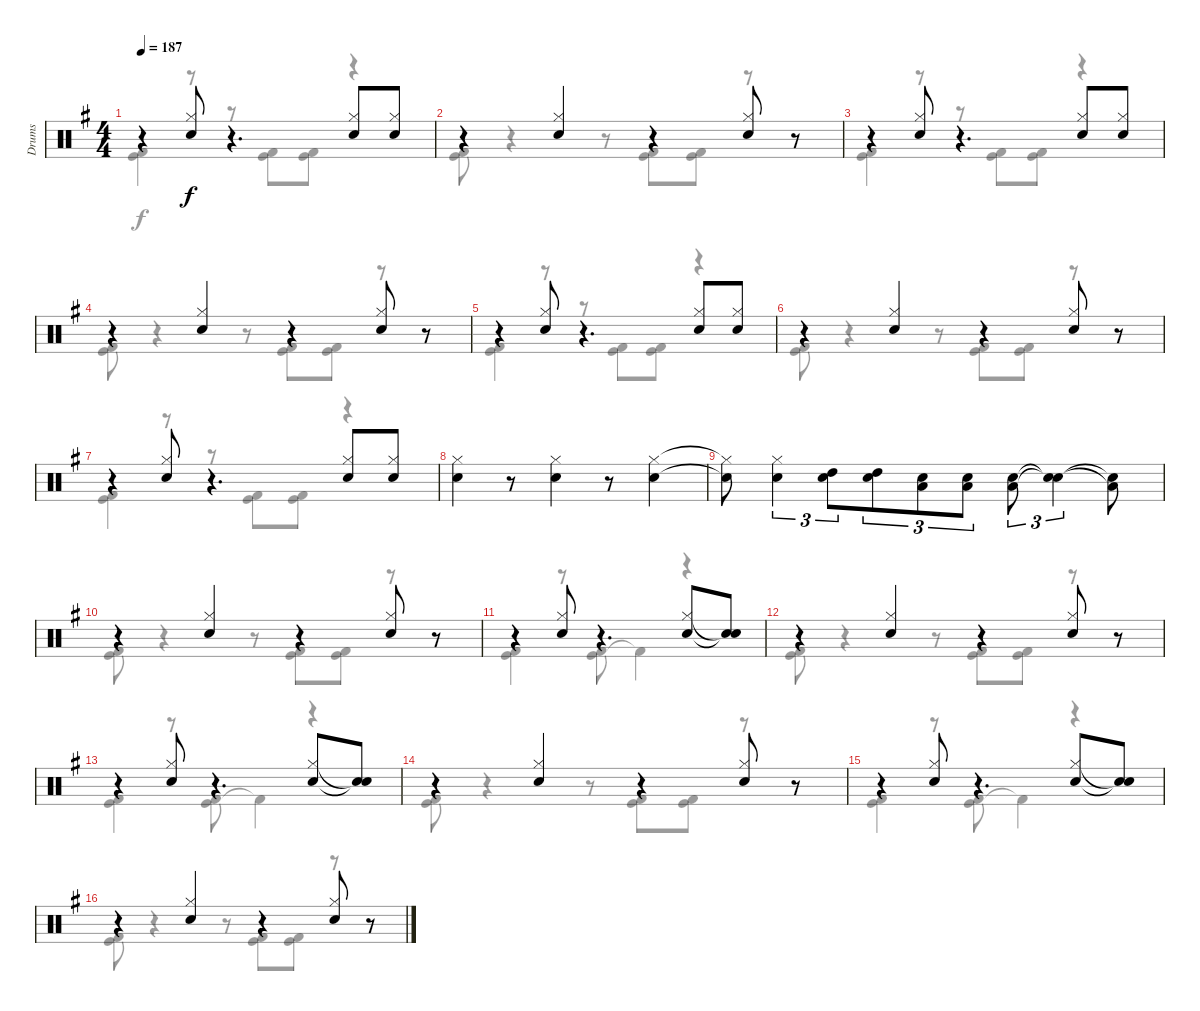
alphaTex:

\track ("Drums" "Drums") {instrument percussion}
\staff {score}
\articulation defaults
\voice
\ts (4 4)
\tempo 187
\clef neutral
\ks g
r.4{dy f} ("Hi-Hat (closed)" "Electric Snare (hit)").8 r.4{d} ("Hi-Hat (closed)" "Electric Snare (hit)").8 ("Hi-Hat (closed)" "Electric Snare (hit)").8 |
r.4 ("Hi-Hat (closed)" "Electric Snare (hit)").4 r.4 ("Hi-Hat (closed)" "Electric Snare (hit)").8 r.8 |
r.4 ("Hi-Hat (closed)" "Electric Snare (hit)").8 r.4{d} ("Hi-Hat (closed)" "Electric Snare (hit)").8 ("Hi-Hat (closed)" "Electric Snare (hit)").8 |
r.4 ("Hi-Hat (closed)" "Electric Snare (hit)").4 r.4 ("Hi-Hat (closed)" "Electric Snare (hit)").8 r.8 |
r.4 ("Hi-Hat (closed)" "Electric Snare (hit)").8 r.4{d} ("Hi-Hat (closed)" "Electric Snare (hit)").8 ("Hi-Hat (closed)" "Electric Snare (hit)").8 |
r.4 ("Hi-Hat (closed)" "Electric Snare (hit)").4 r.4 ("Hi-Hat (closed)" "Electric Snare (hit)").8 r.8 |
r.4 ("Hi-Hat (closed)" "Electric Snare (hit)").8 r.4{d} ("Hi-Hat (closed)" "Electric Snare (hit)").8 ("Hi-Hat (closed)" "Electric Snare (hit)").8 |
("Hi-Hat (closed)" "Electric Snare (hit)").4 r.8 ("Hi-Hat (closed)" "Electric Snare (hit)").4 r.8 ("Hi-Hat (closed)" "Electric Snare (hit)").4 |
("Hi-Hat (closed)"{t} "Electric Snare (hit)"{t}).8 ("Hi-Hat (closed)" "Electric Snare (hit)").4{tu (3 2)} ("High Tom (hit)" "Electric Snare (hit)").8{tu (3 2) beam merge} ("High Tom (hit)" "Electric Snare (hit)").8{tu (3 2)} ("Low Tom (hit)" "Electric Snare (hit)").8{tu (3 2) beam merge} ("Low Tom (hit)" "Electric Snare (hit)").8{tu (3 2)} ("Low Tom (hit)" "Electric Snare (hit)").8{tu (3 2)} ("Snare (hit)"{t} "Snare (hit)"{t}).4{tu (3 2)} ("Low Tom (hit)"{t} "Electric Snare (hit)"{t}).8 |
r.4 ("Hi-Hat (closed)" "Electric Snare (hit)").4 r.4 ("Hi-Hat (closed)" "Electric Snare (hit)").8 r.8 |
r.4 ("Hi-Hat (closed)" "Electric Snare (hit)").8 r.4{d} ("Hi-Hat (closed)" "Electric Snare (hit)").8 ("Snare (hit)"{t} "Snare (hit)"{t}).8 |
r.4 ("Hi-Hat (closed)" "Electric Snare (hit)").4 r.4 ("Hi-Hat (closed)" "Electric Snare (hit)").8 r.8 |
r.4 ("Hi-Hat (closed)" "Electric Snare (hit)").8 r.4{d} ("Hi-Hat (closed)" "Electric Snare (hit)").8 ("Snare (hit)"{t} "Snare (hit)"{t}).8 |
r.4 ("Hi-Hat (closed)" "Electric Snare (hit)").4 r.4 ("Hi-Hat (closed)" "Electric Snare (hit)").8 r.8 |
r.4 ("Hi-Hat (closed)" "Electric Snare (hit)").8 r.4{d} ("Hi-Hat (closed)" "Electric Snare (hit)").8 ("Snare (hit)"{t} "Snare (hit)"{t}).8 |
r.4 ("Hi-Hat (closed)" "Electric Snare (hit)").4 r.4 ("Hi-Hat (closed)" "Electric Snare (hit)").8 r.8
\voice
\clef neutral
\ottava regular
\simile none
\ks g
("Kick (hit)" "Kick (hit) 2").4{dy f} r.8 r.8 ("Kick (hit)" "Kick (hit) 2").8 ("Kick (hit)" "Kick (hit) 2").8 r.4 |
("Kick (hit)" "Kick (hit) 2").8 r.4 r.8 ("Kick (hit)" "Kick (hit) 2").8 ("Kick (hit)" "Kick (hit) 2").8 r.8 r.8 |
("Kick (hit)" "Kick (hit) 2").4 r.8 r.8 ("Kick (hit)" "Kick (hit) 2").8 ("Kick (hit)" "Kick (hit) 2").8 r.4 |
("Kick (hit)" "Kick (hit) 2").8 r.4 r.8 ("Kick (hit)" "Kick (hit) 2").8 ("Kick (hit)" "Kick (hit) 2").8 r.8 r.8 |
("Kick (hit)" "Kick (hit) 2").4 r.8 r.8 ("Kick (hit)" "Kick (hit) 2").8 ("Kick (hit)" "Kick (hit) 2").8 r.4 |
("Kick (hit)" "Kick (hit) 2").8 r.4 r.8 ("Kick (hit)" "Kick (hit) 2").8 ("Kick (hit)" "Kick (hit) 2").8 r.8 r.8 |
("Kick (hit)" "Kick (hit) 2").4 r.8 r.8 ("Kick (hit)" "Kick (hit) 2").8 ("Kick (hit)" "Kick (hit) 2").8 r.4 |
|
|
("Kick (hit)" "Kick (hit) 2").8 r.4 r.8 ("Kick (hit)" "Kick (hit) 2").8 ("Kick (hit)" "Kick (hit) 2").8 r.8 r.8 |
("Kick (hit)" "Kick (hit) 2").4 r.8 ("Kick (hit)" "Kick (hit) 2").8 "Kick (hit) 2"{t}.4 r.4 |
("Kick (hit)" "Kick (hit) 2").8 r.4 r.8 ("Kick (hit)" "Kick (hit) 2").8 ("Kick (hit)" "Kick (hit) 2").8 r.8 r.8 |
("Kick (hit)" "Kick (hit) 2").4 r.8 ("Kick (hit)" "Kick (hit) 2").8 "Kick (hit) 2"{t}.4 r.4 |
("Kick (hit)" "Kick (hit) 2").8 r.4 r.8 ("Kick (hit)" "Kick (hit) 2").8 ("Kick (hit)" "Kick (hit) 2").8 r.8 r.8 |
("Kick (hit)" "Kick (hit) 2").4 r.8 ("Kick (hit)" "Kick (hit) 2").8 "Kick (hit) 2"{t}.4 r.4 |
("Kick (hit)" "Kick (hit) 2").8 r.4 r.8 ("Kick (hit)" "Kick (hit) 2").8 ("Kick (hit)" "Kick (hit) 2").8 r.8 r.8
